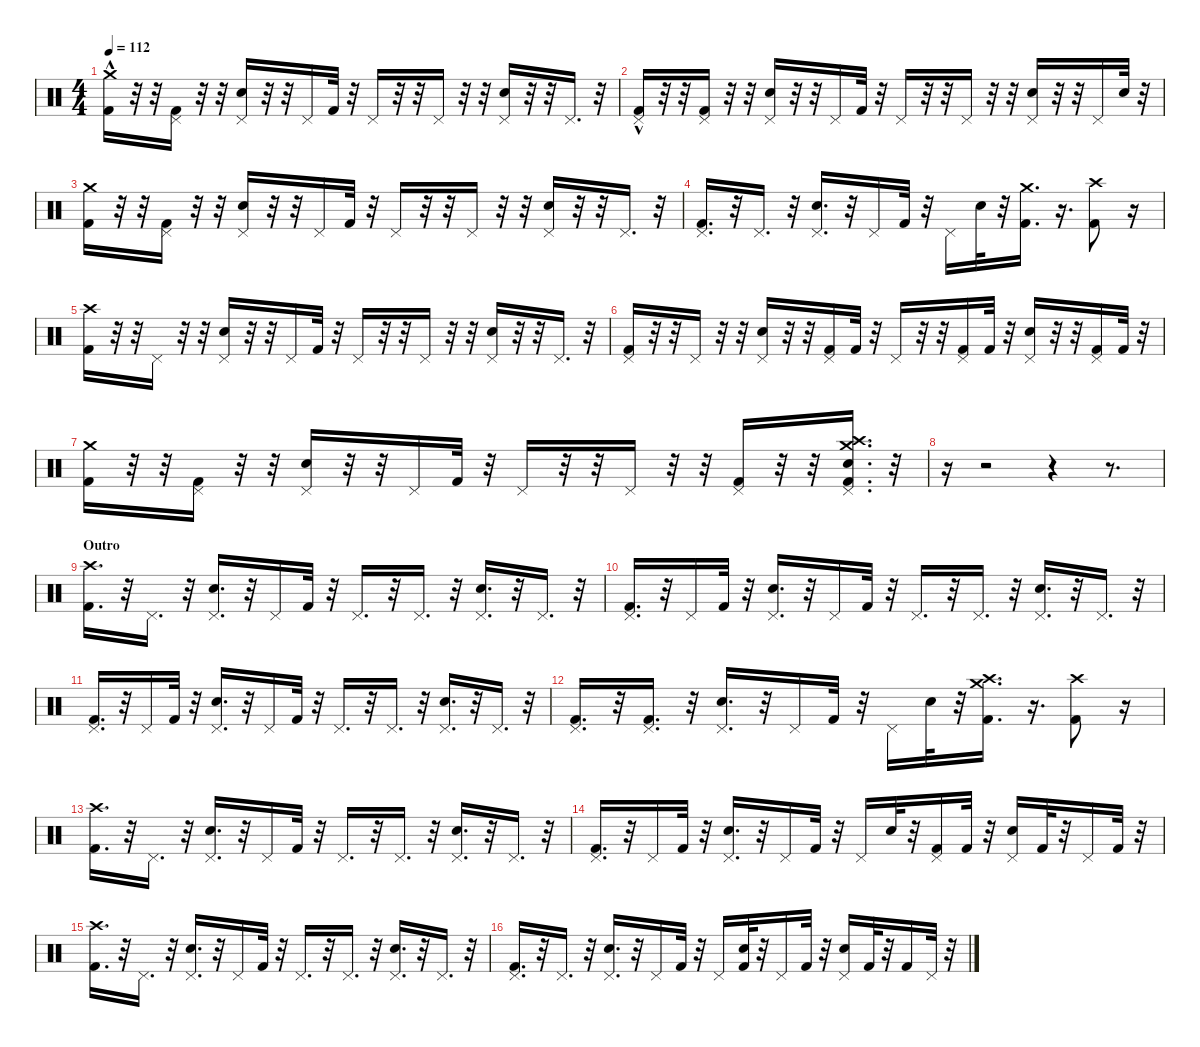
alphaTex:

\hideDynamics
\bracketExtendMode nobrackets
\singleTrackTrackNamePolicy hidden
\multiTrackTrackNamePolicy hidden
\firstSystemTrackNameMode fullname
\firstSystemTrackNameOrientation horizontal
\otherSystemsTrackNameOrientation horizontal
\track ("Drumkit" "Drums") {instrument percussion}
\staff {score}
\articulation defaults
\ts (4 4)
\tempo 112
\clef neutral
\ks c
("Kick (hit) 2"{hac} "Crash medium (hit)").16{dy f beam Down} r.32{beam Down} r.32{beam Down} ("Pedal Hi-Hat (hit)" "Kick (hit) 2").16{beam Down} r.32{beam Down} r.32{beam Down} ("Pedal Hi-Hat (hit)" "Snare (hit) 2").16{beam Up} r.32{beam Up} r.32{beam Up} "Pedal Hi-Hat (hit)".16{beam Up} "Kick (hit) 2".32{beam Up} r.32{beam Up} "Pedal Hi-Hat (hit)".16{beam Up} r.32{beam Up} r.32{beam Up} "Pedal Hi-Hat (hit)".16{beam Up} r.32{beam Up} r.32{beam Up} ("Pedal Hi-Hat (hit)" "Snare (hit) 2").16{beam Up} r.32{beam Up} r.32{beam Up} "Pedal Hi-Hat (hit)".16{d beam Up} r.32{beam Up} |
("Pedal Hi-Hat (hit)" "Kick (hit) 2"{hac}).16{beam Up} r.32{beam Up} r.32{beam Up} ("Pedal Hi-Hat (hit)" "Kick (hit) 2").16{beam Up} r.32{beam Up} r.32{beam Up} ("Pedal Hi-Hat (hit)" "Snare (hit) 2").16{beam Up} r.32{beam Up} r.32{beam Up} "Pedal Hi-Hat (hit)".16{beam Up} "Kick (hit) 2".32{beam Up} r.32{beam Up} "Pedal Hi-Hat (hit)".16{beam Up} r.32{beam Up} r.32{beam Up} "Pedal Hi-Hat (hit)".16{beam Up} r.32{beam Up} r.32{beam Up} ("Pedal Hi-Hat (hit)" "Snare (hit) 2").16{beam Up} r.32{beam Up} r.32{beam Up} "Pedal Hi-Hat (hit)".16{beam Up} "Snare (hit) 2".32{beam Up} r.32{beam Up} |
("Kick (hit) 2" "Crash medium (hit)").16{beam Down} r.32{beam Down} r.32{beam Down} ("Pedal Hi-Hat (hit)" "Kick (hit) 2").16{beam Down} r.32{beam Down} r.32{beam Down} ("Pedal Hi-Hat (hit)" "Snare (hit) 2").16{beam Up} r.32{beam Up} r.32{beam Up} "Pedal Hi-Hat (hit)".16{beam Up} "Kick (hit) 2".32{beam Up} r.32{beam Up} "Pedal Hi-Hat (hit)".16{beam Up} r.32{beam Up} r.32{beam Up} "Pedal Hi-Hat (hit)".16{beam Up} r.32{beam Up} r.32{beam Up} ("Pedal Hi-Hat (hit)" "Snare (hit) 2").16{beam Up} r.32{beam Up} r.32{beam Up} "Pedal Hi-Hat (hit)".16{d beam Up} r.32{beam Up} |
("Pedal Hi-Hat (hit)" "Kick (hit) 2").16{d beam Up} r.32{beam Up} "Pedal Hi-Hat (hit)".16{d beam Up} r.32{beam Up} ("Pedal Hi-Hat (hit)" "Snare (hit) 2").16{d beam Up} r.32{beam Up} "Pedal Hi-Hat (hit)".16{beam Up} "Kick (hit) 2".32{beam Up} r.32{beam Up} "Pedal Hi-Hat (hit)".16{beam Down} "Snare (hit) 2".32{beam Down} r.32{beam Down} ("Kick (hit) 2" "Crash medium (hit)").16{d beam Down} r.16{d beam Down} ("Crash high (hit)" "Kick (hit) 2").8{beam Down} r.16{beam Down} |
("Crash high (hit)" "Kick (hit) 2").16{beam Down} r.32{beam Down} r.32{beam Down} "Pedal Hi-Hat (hit)".16{beam Down} r.32{beam Down} r.32{beam Down} ("Pedal Hi-Hat (hit)" "Snare (hit) 2").16{beam Up} r.32{beam Up} r.32{beam Up} "Pedal Hi-Hat (hit)".16{beam Up} "Kick (hit) 2".32{beam Up} r.32{beam Up} "Pedal Hi-Hat (hit)".16{beam Up} r.32{beam Up} r.32{beam Up} "Pedal Hi-Hat (hit)".16{beam Up} r.32{beam Up} r.32{beam Up} ("Pedal Hi-Hat (hit)" "Snare (hit) 2").16{beam Up} r.32{beam Up} r.32{beam Up} "Pedal Hi-Hat (hit)".16{d beam Up} r.32{beam Up} |
("Pedal Hi-Hat (hit)" "Kick (hit) 2").16{beam Up} r.32{beam Up} r.32{beam Up} "Pedal Hi-Hat (hit)".16{beam Up} r.32{beam Up} r.32{beam Up} ("Pedal Hi-Hat (hit)" "Snare (hit) 2").16{beam Up} r.32{beam Up} r.32{beam Up} ("Pedal Hi-Hat (hit)" "Kick (hit) 2").16{beam Up} "Kick (hit) 2".32{beam Up} r.32{beam Up} "Pedal Hi-Hat (hit)".16{beam Up} r.32{beam Up} r.32{beam Up} ("Pedal Hi-Hat (hit)" "Kick (hit) 2").16{beam Up} "Kick (hit) 2".32{beam Up} r.32{beam Up} ("Pedal Hi-Hat (hit)" "Snare (hit) 2").16{beam Up} r.32{beam Up} r.32{beam Up} ("Pedal Hi-Hat (hit)" "Kick (hit) 2").16{beam Up} "Kick (hit) 2".32{beam Up} r.32{beam Up} |
("Kick (hit) 2" "Crash medium (hit)").16{beam Down} r.32{beam Down} r.32{beam Down} ("Pedal Hi-Hat (hit)" "Kick (hit) 2").16{beam Down} r.32{beam Down} r.32{beam Down} ("Pedal Hi-Hat (hit)" "Snare (hit) 2").16{beam Up} r.32{beam Up} r.32{beam Up} "Pedal Hi-Hat (hit)".16{beam Up} "Kick (hit) 2".32{beam Up} r.32{beam Up} "Pedal Hi-Hat (hit)".16{beam Up} r.32{beam Up} r.32{beam Up} "Pedal Hi-Hat (hit)".16{beam Up} r.32{beam Up} r.32{beam Up} ("Pedal Hi-Hat (hit)" "Kick (hit) 2").16{beam Up} r.32{beam Up} r.32{beam Up} ("Pedal Hi-Hat (hit)" "Kick (hit) 2" "Snare (hit) 2" "Crash high (hit)" "Crash medium (hit)").16{d beam Up} r.32{beam Up} |
r.16{beam Down} r.2{beam Down} r.4{beam Down} r.8{d beam Down} |
\section ("" "Outro")
("Kick (hit) 2" "Crash high (hit)").16{d dy ff beam Down} r.32{beam Down} "Pedal Hi-Hat (hit)".16{d beam Down} r.32{beam Down} ("Pedal Hi-Hat (hit)" "Snare (hit) 2").16{d beam Up} r.32{beam Up} "Pedal Hi-Hat (hit)".16{beam Up} "Kick (hit) 2".32{beam Up} r.32{beam Up} "Pedal Hi-Hat (hit)".16{d beam Up} r.32{beam Up} "Pedal Hi-Hat (hit)".16{d beam Up} r.32{beam Up} ("Pedal Hi-Hat (hit)" "Snare (hit) 2").16{d beam Up} r.32{beam Up} "Pedal Hi-Hat (hit)".16{d beam Up} r.32{beam Up} |
("Pedal Hi-Hat (hit)" "Kick (hit) 2").16{d beam Up} r.32{beam Up} "Pedal Hi-Hat (hit)".16{beam Up} "Kick (hit) 2".32{beam Up} r.32{beam Up} ("Pedal Hi-Hat (hit)" "Snare (hit) 2").16{d beam Up} r.32{beam Up} "Pedal Hi-Hat (hit)".16{beam Up} "Kick (hit) 2".32{beam Up} r.32{beam Up} "Pedal Hi-Hat (hit)".16{d beam Up} r.32{beam Up} "Pedal Hi-Hat (hit)".16{d beam Up} r.32{beam Up} ("Pedal Hi-Hat (hit)" "Snare (hit) 2").16{d beam Up} r.32{beam Up} "Pedal Hi-Hat (hit)".16{d beam Up} r.32{beam Up} |
("Pedal Hi-Hat (hit)" "Kick (hit) 2").16{d beam Up} r.32{beam Up} "Pedal Hi-Hat (hit)".16{beam Up} "Kick (hit) 2".32{beam Up} r.32{beam Up} ("Pedal Hi-Hat (hit)" "Snare (hit) 2").16{d beam Up} r.32{beam Up} "Pedal Hi-Hat (hit)".16{beam Up} "Kick (hit) 2".32{beam Up} r.32{beam Up} "Pedal Hi-Hat (hit)".16{d beam Up} r.32{beam Up} "Pedal Hi-Hat (hit)".16{d beam Up} r.32{beam Up} ("Pedal Hi-Hat (hit)" "Snare (hit) 2").16{d beam Up} r.32{beam Up} "Pedal Hi-Hat (hit)".16{d beam Up} r.32{beam Up} |
("Pedal Hi-Hat (hit)" "Kick (hit) 2").16{d beam Up} r.32{beam Up} ("Pedal Hi-Hat (hit)" "Kick (hit) 2").16{d beam Up} r.32{beam Up} ("Pedal Hi-Hat (hit)" "Snare (hit) 2").16{d beam Up} r.32{beam Up} "Pedal Hi-Hat (hit)".16{beam Up} "Kick (hit) 2".32{beam Up} r.32{beam Up} "Pedal Hi-Hat (hit)".16{beam Down} "Snare (hit) 2".32{beam Down} r.32{beam Down} ("Crash high (hit)" "Kick (hit) 2" "Crash medium (hit)").16{d beam Down} r.16{d beam Down} ("Kick (hit) 2" "Crash high (hit)").8{beam Down} r.16{beam Down} |
("Crash high (hit)" "Kick (hit) 2").16{d beam Down} r.32{beam Down} "Pedal Hi-Hat (hit)".16{d beam Down} r.32{beam Down} ("Pedal Hi-Hat (hit)" "Snare (hit) 2").16{d beam Up} r.32{beam Up} "Pedal Hi-Hat (hit)".16{beam Up} "Kick (hit) 2".32{beam Up} r.32{beam Up} "Pedal Hi-Hat (hit)".16{d beam Up} r.32{beam Up} "Pedal Hi-Hat (hit)".16{d beam Up} r.32{beam Up} ("Pedal Hi-Hat (hit)" "Snare (hit) 2").16{d beam Up} r.32{beam Up} "Pedal Hi-Hat (hit)".16{d beam Up} r.32{beam Up} |
("Pedal Hi-Hat (hit)" "Kick (hit) 2").16{d beam Up} r.32{beam Up} "Pedal Hi-Hat (hit)".16{beam Up} "Kick (hit) 2".32{beam Up} r.32{beam Up} ("Pedal Hi-Hat (hit)" "Snare (hit) 2").16{d beam Up} r.32{beam Up} "Pedal Hi-Hat (hit)".16{beam Up} "Kick (hit) 2".32{beam Up} r.32{beam Up} "Pedal Hi-Hat (hit)".16{beam Up} "Snare (hit) 2".32{beam Up} r.32{beam Up} ("Pedal Hi-Hat (hit)" "Kick (hit) 2").16{beam Up} "Kick (hit) 2".32{beam Up} r.32{beam Up} ("Pedal Hi-Hat (hit)" "Snare (hit) 2").16{beam Up} "Kick (hit) 2".32{beam Up} r.32{beam Up} "Pedal Hi-Hat (hit)".16{beam Up} "Kick (hit) 2".32{beam Up} r.32{beam Up} |
("Crash high (hit)" "Kick (hit) 2").16{d beam Down} r.32{beam Down} "Pedal Hi-Hat (hit)".16{d beam Down} r.32{beam Down} ("Pedal Hi-Hat (hit)" "Snare (hit) 2").16{d beam Up} r.32{beam Up} "Pedal Hi-Hat (hit)".16{beam Up} "Kick (hit) 2".32{beam Up} r.32{beam Up} "Pedal Hi-Hat (hit)".16{d beam Up} r.32{beam Up} "Pedal Hi-Hat (hit)".16{d beam Up} r.32{beam Up} ("Pedal Hi-Hat (hit)" "Snare (hit) 2").16{d beam Up} r.32{beam Up} "Pedal Hi-Hat (hit)".16{d beam Up} r.32{beam Up} |
("Pedal Hi-Hat (hit)" "Kick (hit) 2").16{d beam Up} r.32{beam Up} "Pedal Hi-Hat (hit)".16{d beam Up} r.32{beam Up} ("Pedal Hi-Hat (hit)" "Snare (hit) 2").16{d beam Up} r.32{beam Up} "Pedal Hi-Hat (hit)".16{beam Up} "Kick (hit) 2".32{beam Up} r.32{beam Up} "Pedal Hi-Hat (hit)".16{beam Up} ("Snare (hit) 2" "Kick (hit) 2").32{beam Up} r.32{beam Up} "Pedal Hi-Hat (hit)".16{beam Up} "Kick (hit) 2".32{beam Up} r.32{beam Up} ("Pedal Hi-Hat (hit)" "Snare (hit) 2").16{beam Up} "Kick (hit) 2".32{beam Up} r.32{beam Up} "Kick (hit) 2".16{beam Up} "Pedal Hi-Hat (hit)".32{beam Up} r.32{beam Up}
